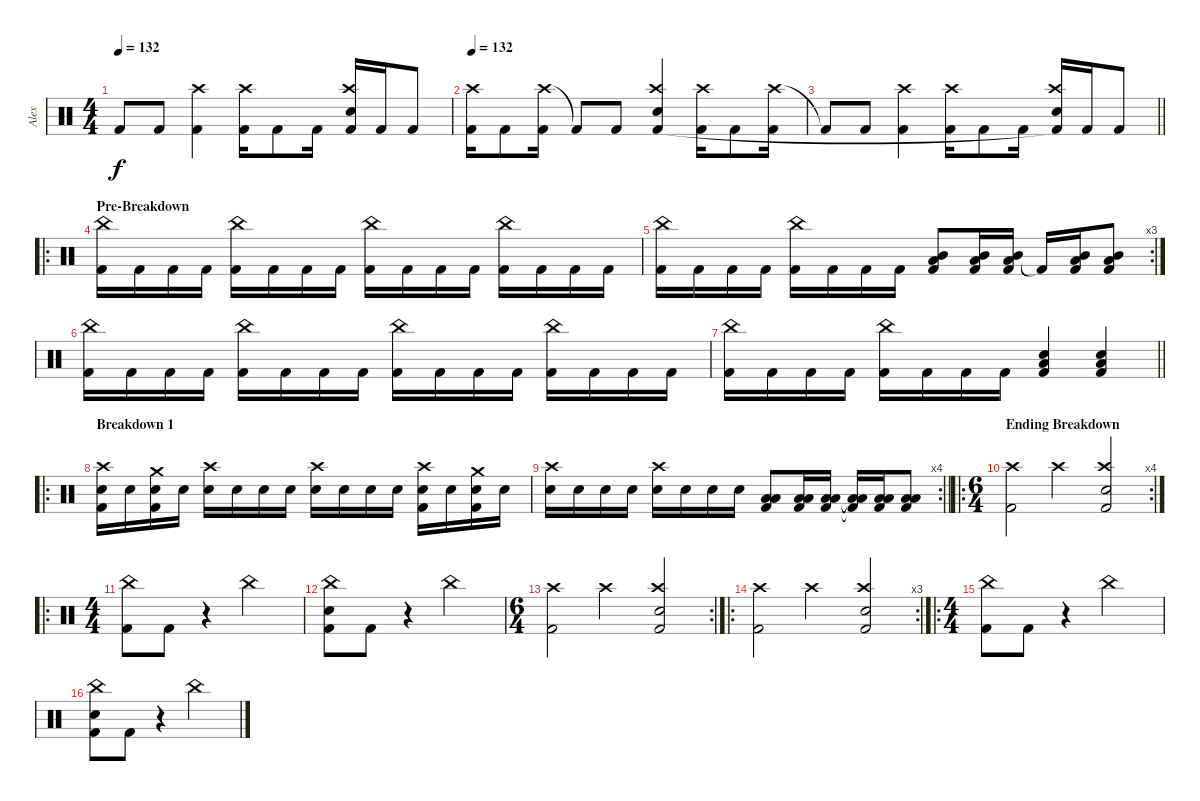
\track ("Alex" "Alex") {instrument percussion}
\staff {score}
\articulation defaults
\ts (4 4)
\tempo 132
\clef neutral
\ks c "Kick (hit) 2"{t}.8{dy f} "Kick (hit) 2".8
("Crash high (hit)" "Kick (hit) 2").4 ("Crash high (hit)" "Kick (hit) 2").16 "Kick (hit) 2".8 "Kick (hit) 2".16 ("Crash high (hit)" "Electric Snare (hit)" "Kick (hit) 2"{t}).16 "Kick (hit) 2".16 "Kick (hit) 2".8 |
\tempo 132
("Crash high (hit)" "Kick (hit) 2").16 "Kick (hit) 2".8 ("Crash high (hit)" "Kick (hit) 2").16 "Kick (hit) 2"{t}.8 "Kick (hit) 2".8 ("Crash high (hit)" "Electric Snare (hit)" "Kick (hit) 2").4 ("Crash high (hit)" "Kick (hit) 2").16 "Kick (hit) 2".8 ("Crash high (hit)" "Kick (hit) 2").16 |
\barLineRight lightlight "Kick (hit) 2"{t}.8 "Kick (hit) 2".8
("Crash high (hit)" "Kick (hit) 2").4 ("Crash high (hit)" "Kick (hit) 2").16 "Kick (hit) 2".8 "Kick (hit) 2".16 ("Crash high (hit)" "Electric Snare (hit)" "Kick (hit) 2"{t}).16 "Kick (hit) 2".16 "Kick (hit) 2".8 |
\ro
\section ("" "Pre-Breakdown")
("China (hit)" "Kick (hit) 2").16 "Kick (hit) 2".16 "Kick (hit) 2".16 "Kick (hit) 2".16 ("China (hit)" "Kick (hit) 2").16 "Kick (hit) 2".16 "Kick (hit) 2".16 "Kick (hit) 2".16 ("China (hit)" "Kick (hit) 2").16 "Kick (hit) 2".16 "Kick (hit) 2".16 "Kick (hit) 2".16 ("China (hit)" "Kick (hit) 2").16 "Kick (hit) 2".16 "Kick (hit) 2".16 "Kick (hit) 2".16 |
\rc 3
("China (hit)" "Kick (hit) 2").16 "Kick (hit) 2".16 "Kick (hit) 2".16 "Kick (hit) 2".16 ("China (hit)" "Kick (hit) 2").16 "Kick (hit) 2".16 "Kick (hit) 2".16 "Kick (hit) 2".16 ("Mid Tom (hit)" "Low Floor Tom (hit)" "Kick (hit) 2").8 ("Mid Tom (hit)" "Low Floor Tom (hit)" "Kick (hit) 2").16 ("Mid Tom (hit)" "Low Floor Tom (hit)" "Kick (hit) 2").16 "Kick (hit) 2"{t}.16 ("Mid Tom (hit)" "Low Floor Tom (hit)" "Kick (hit) 2").16 ("Mid Tom (hit)" "Low Floor Tom (hit)" "Kick (hit) 2").8 |
("China (hit)" "Kick (hit) 2").16 "Kick (hit) 2".16 "Kick (hit) 2".16 "Kick (hit) 2".16 ("China (hit)" "Kick (hit) 2").16 "Kick (hit) 2".16 "Kick (hit) 2".16 "Kick (hit) 2".16 ("China (hit)" "Kick (hit) 2").16 "Kick (hit) 2".16 "Kick (hit) 2".16 "Kick (hit) 2".16 ("China (hit)" "Kick (hit) 2").16 "Kick (hit) 2".16 "Kick (hit) 2".16 "Kick (hit) 2".16 |
\barLineRight lightlight
("China (hit)" "Kick (hit) 2").16 "Kick (hit) 2".16 "Kick (hit) 2".16 "Kick (hit) 2".16 ("China (hit)" "Kick (hit) 2").16 "Kick (hit) 2".16 "Kick (hit) 2".16 "Kick (hit) 2".16 ("Electric Snare (hit)" "Low Floor Tom (hit)" "Kick (hit) 2").4 ("Electric Snare (hit)" "Low Floor Tom (hit)" "Kick (hit) 2").4 |
\ro
\section ("" "Breakdown 1")
("Crash high (hit)" "Electric Snare (hit)" "Kick (hit) 2").16 "Electric Snare (hit)".16 ("Crash medium (hit)" "Electric Snare (hit)" "Kick (hit) 2").16 "Electric Snare (hit)".16 ("Crash high (hit)" "Electric Snare (hit)").16 "Electric Snare (hit)".16 "Electric Snare (hit)".16 "Electric Snare (hit)".16 ("Crash high (hit)" "Electric Snare (hit)").16 "Electric Snare (hit)".16 "Electric Snare (hit)".16 "Electric Snare (hit)".16 ("Crash high (hit)" "Electric Snare (hit)" "Kick (hit) 2").16 "Electric Snare (hit)".16 ("Crash medium (hit)" "Electric Snare (hit)" "Kick (hit) 2").16 "Electric Snare (hit)".16 |
\rc 4
\barLineRight lightlight
("Crash high (hit)" "Electric Snare (hit)").16 "Electric Snare (hit)".16 "Electric Snare (hit)".16 "Electric Snare (hit)".16 ("Crash high (hit)" "Electric Snare (hit)").16 "Electric Snare (hit)".16 "Electric Snare (hit)".16 "Electric Snare (hit)".16 ("Low Tom (hit)" "Low Floor Tom (hit)" "Kick (hit) 2").8 ("Low Tom (hit)" "Low Floor Tom (hit)" "Kick (hit) 2").16 ("Low Tom (hit)" "Low Floor Tom (hit)" "Kick (hit) 2").16 ("Low Tom (hit)"{t} "Low Floor Tom (hit)"{t} "Kick (hit) 2"{t}).16 ("Low Tom (hit)" "Low Floor Tom (hit)" "Kick (hit) 2").16 ("Low Tom (hit)" "Low Floor Tom (hit)" "Kick (hit) 2").8 |
\ro
\rc 4
\ts (6 4)
\section ("" "Ending Breakdown")
("Crash high (hit)" "Kick (hit) 2").2 "Crash high (hit)".2 ("Crash high (hit)" "Electric Snare (hit)" "Kick (hit) 2").2 |
\ro
\ts (4 4)
("China (hit)" "Kick (hit) 2").8 "Kick (hit) 2".8 r.4 "China (hit)".2 |
("China (hit)" "Electric Snare (hit)" "Kick (hit) 2").8 "Kick (hit) 2".8 r.4 "China (hit)".2 |
\rc 2
\ts (6 4)
("Crash high (hit)" "Kick (hit) 2").2 "Crash high (hit)".2 ("Crash high (hit)" "Electric Snare (hit)" "Kick (hit) 2").2 |
\ro
\rc 3
("Crash high (hit)" "Kick (hit) 2").2 "Crash high (hit)".2 ("Crash high (hit)" "Electric Snare (hit)" "Kick (hit) 2").2 |
\ro
\ts (4 4)
("China (hit)" "Kick (hit) 2").8 "Kick (hit) 2".8 r.4 "China (hit)".2 |
("China (hit)" "Electric Snare (hit)" "Kick (hit) 2").8 "Kick (hit) 2".8 r.4 "China (hit)".2
